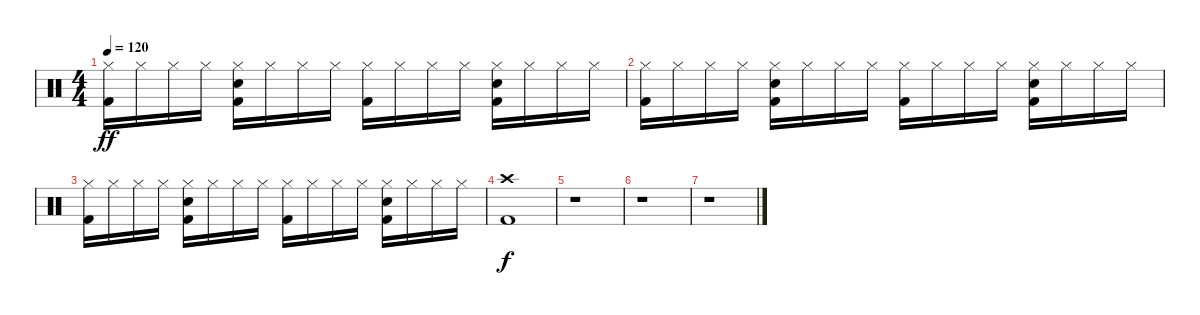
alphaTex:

\track "" {instrument percussion}
\staff {score}
\articulation defaults
\ts (4 4)
\tempo 120
\clef neutral
\ks c
("Hi-Hat (closed)" "Kick (hit) 2").16{dy ff} "Hi-Hat (closed)".16 "Hi-Hat (closed)".16 "Hi-Hat (closed)".16 ("Hi-Hat (closed)" "Electric Snare (hit)" "Kick (hit) 2").16 "Hi-Hat (closed)".16 "Hi-Hat (closed)".16 "Hi-Hat (closed)".16 ("Hi-Hat (closed)" "Kick (hit) 2").16 "Hi-Hat (closed)".16 "Hi-Hat (closed)".16 "Hi-Hat (closed)".16 ("Hi-Hat (closed)" "Electric Snare (hit)" "Kick (hit) 2").16 "Hi-Hat (closed)".16 "Hi-Hat (closed)".16 "Hi-Hat (closed)".16 |
("Hi-Hat (closed)" "Kick (hit) 2").16 "Hi-Hat (closed)".16 "Hi-Hat (closed)".16 "Hi-Hat (closed)".16 ("Hi-Hat (closed)" "Electric Snare (hit)" "Kick (hit) 2").16 "Hi-Hat (closed)".16 "Hi-Hat (closed)".16 "Hi-Hat (closed)".16 ("Hi-Hat (closed)" "Kick (hit) 2").16 "Hi-Hat (closed)".16 "Hi-Hat (closed)".16 "Hi-Hat (closed)".16 ("Hi-Hat (closed)" "Electric Snare (hit)" "Kick (hit) 2").16 "Hi-Hat (closed)".16 "Hi-Hat (closed)".16 "Hi-Hat (closed)".16 |
("Hi-Hat (closed)" "Kick (hit) 2").16 "Hi-Hat (closed)".16 "Hi-Hat (closed)".16 "Hi-Hat (closed)".16 ("Hi-Hat (closed)" "Electric Snare (hit)" "Kick (hit) 2").16 "Hi-Hat (closed)".16 "Hi-Hat (closed)".16 "Hi-Hat (closed)".16 ("Hi-Hat (closed)" "Kick (hit) 2").16 "Hi-Hat (closed)".16 "Hi-Hat (closed)".16 "Hi-Hat (closed)".16 ("Hi-Hat (closed)" "Electric Snare (hit)" "Kick (hit) 2").16 "Hi-Hat (closed)".16 "Hi-Hat (closed)".16 "Hi-Hat (closed)".16 |
("Crash high (hit)" "Kick (hit) 2").1{dy f} |
r.1 |
r.1 |
r.1
